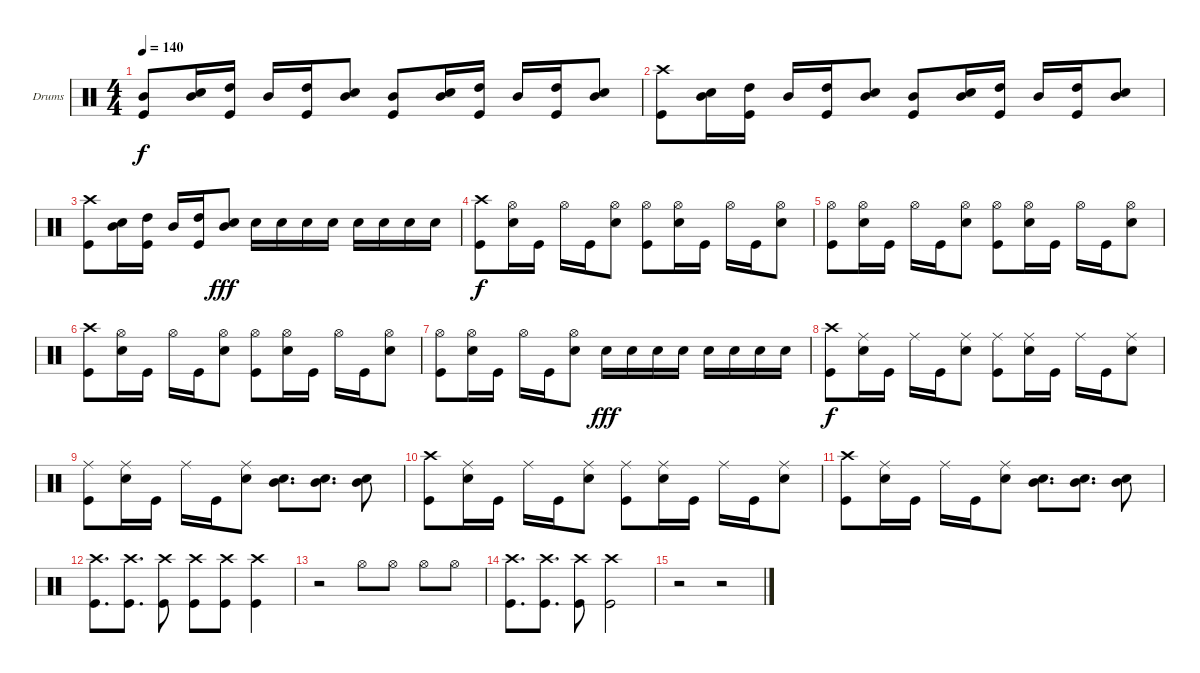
\bracketExtendMode groupsimilarinstruments
\firstSystemTrackNameOrientation horizontal
\otherSystemsTrackNameOrientation horizontal
\track ("Porutchik" "Drums") {instrument percussion}
\staff {score}
\articulation defaults
\ts (4 4)
\tempo 140
\clef neutral
\ks c
("Mid Tom (hit)" "Kick (hit)").8{dy f} ("Mid Tom (hit)" "Snare (hit) 2").16 ("High Tom (hit)" "Kick (hit)").16 "Mid Tom (hit)".16 ("High Tom (hit)" "Kick (hit)").16 ("Mid Tom (hit)" "Snare (hit) 2").8 ("Mid Tom (hit)" "Kick (hit)").8 ("Mid Tom (hit)" "Snare (hit) 2").16 ("High Tom (hit)" "Kick (hit)").16 "Mid Tom (hit)".16 ("High Tom (hit)" "Kick (hit)").16 ("Mid Tom (hit)" "Snare (hit) 2").8 |
("Crash high (hit)" "Kick (hit)").8 ("Mid Tom (hit)" "Snare (hit) 2").16 ("High Tom (hit)" "Kick (hit)").16 "Mid Tom (hit)".16 ("High Tom (hit)" "Kick (hit)").16 ("Mid Tom (hit)" "Snare (hit) 2").8 ("Mid Tom (hit)" "Kick (hit)").8 ("Mid Tom (hit)" "Snare (hit) 2").16 ("High Tom (hit)" "Kick (hit)").16 "Mid Tom (hit)".16 ("High Tom (hit)" "Kick (hit)").16 ("Mid Tom (hit)" "Snare (hit) 2").8 |
("Crash high (hit)" "Kick (hit)").8 ("Mid Tom (hit)" "Snare (hit) 2").16 ("High Tom (hit)" "Kick (hit)").16 "Mid Tom (hit)".16 ("High Tom (hit)" "Kick (hit)").16 ("Mid Tom (hit)" "Snare (hit) 2").8{dy fff} "Snare (hit) 2".16 "Snare (hit) 2".16 "Snare (hit) 2".16 "Snare (hit) 2".16 "Snare (hit) 2".16 "Snare (hit) 2".16 "Snare (hit) 2".16 "Snare (hit) 2".16 |
("Kick (hit)" "Crash high (hit)").8{dy f} ("Snare (hit) 2" "Hi-Hat (open)").16 "Kick (hit)".16 "Hi-Hat (open)".16 "Kick (hit)".16 ("Snare (hit) 2" "Hi-Hat (open)").8 ("Kick (hit)" "Hi-Hat (open)").8 ("Snare (hit) 2" "Hi-Hat (open)").16 "Kick (hit)".16 "Hi-Hat (open)".16 "Kick (hit)".16 ("Snare (hit) 2" "Hi-Hat (open)").8 |
("Kick (hit)" "Hi-Hat (open)").8 ("Snare (hit) 2" "Hi-Hat (open)").16 "Kick (hit)".16 "Hi-Hat (open)".16 "Kick (hit)".16 ("Snare (hit) 2" "Hi-Hat (open)").8 ("Kick (hit)" "Hi-Hat (open)").8 ("Snare (hit) 2" "Hi-Hat (open)").16 "Kick (hit)".16 "Hi-Hat (open)".16 "Kick (hit)".16 ("Snare (hit) 2" "Hi-Hat (open)").8 |
("Kick (hit)" "Crash high (hit)").8 ("Snare (hit) 2" "Hi-Hat (open)").16 "Kick (hit)".16 "Hi-Hat (open)".16 "Kick (hit)".16 ("Snare (hit) 2" "Hi-Hat (open)").8 ("Kick (hit)" "Hi-Hat (open)").8 ("Snare (hit) 2" "Hi-Hat (open)").16 "Kick (hit)".16 "Hi-Hat (open)".16 "Kick (hit)".16 ("Snare (hit) 2" "Hi-Hat (open)").8 |
("Kick (hit)" "Hi-Hat (open)").8 ("Snare (hit) 2" "Hi-Hat (open)").16 "Kick (hit)".16 "Hi-Hat (open)".16 "Kick (hit)".16 ("Snare (hit) 2" "Hi-Hat (open)").8 "Snare (hit) 2".16{dy fff} "Snare (hit) 2".16 "Snare (hit) 2".16 "Snare (hit) 2".16 "Snare (hit) 2".16 "Snare (hit) 2".16 "Snare (hit) 2".16 "Snare (hit) 2".16 |
("Kick (hit)" "Crash high (hit)").8{dy f} ("Snare (hit) 2" "Ride (middle)").16 "Kick (hit)".16 "Ride (middle)".16 "Kick (hit)".16 ("Snare (hit) 2" "Ride (middle)").8 ("Kick (hit)" "Ride (middle)").8 ("Snare (hit) 2" "Ride (middle)").16 "Kick (hit)".16 "Ride (middle)".16 "Kick (hit)".16 ("Snare (hit) 2" "Ride (middle)").8 |
("Kick (hit)" "Ride (middle)").8 ("Snare (hit) 2" "Ride (middle)").16 "Kick (hit)".16 "Ride (middle)".16 "Kick (hit)".16 ("Snare (hit) 2" "Ride (middle)").8 ("Mid Tom (hit)" "Snare (hit) 2").8{d} ("Mid Tom (hit)" "Snare (hit) 2").8{d} ("Mid Tom (hit)" "Snare (hit) 2").8 |
("Kick (hit)" "Crash high (hit)").8 ("Snare (hit) 2" "Ride (middle)").16 "Kick (hit)".16 "Ride (middle)".16 "Kick (hit)".16 ("Snare (hit) 2" "Ride (middle)").8 ("Kick (hit)" "Ride (middle)").8 ("Snare (hit) 2" "Ride (middle)").16 "Kick (hit)".16 "Ride (middle)".16 "Kick (hit)".16 ("Snare (hit) 2" "Ride (middle)").8 |
("Kick (hit)" "Crash high (hit)").8 ("Snare (hit) 2" "Ride (middle)").16 "Kick (hit)".16 "Ride (middle)".16 "Kick (hit)".16 ("Snare (hit) 2" "Ride (middle)").8 ("Mid Tom (hit)" "Snare (hit) 2").8{d} ("Mid Tom (hit)" "Snare (hit) 2").8{d} ("Mid Tom (hit)" "Snare (hit) 2").8 |
("Kick (hit)" "Crash high (hit)").8{d} ("Kick (hit)" "Crash high (hit)").8{d} ("Kick (hit)" "Crash high (hit)").8 ("Kick (hit)" "Crash high (hit)").8 ("Kick (hit)" "Crash high (hit)").8 ("Kick (hit)" "Crash high (hit)").4 |
r.2 "Hi-Hat (open)".8 "Hi-Hat (open)".8 "Hi-Hat (open)".8 "Hi-Hat (open)".8 |
("Kick (hit)" "Crash high (hit)").8{d} ("Kick (hit)" "Crash high (hit)").8{d} ("Kick (hit)" "Crash high (hit)").8 ("Kick (hit)" "Crash high (hit)").2 |
r.2 r.2
